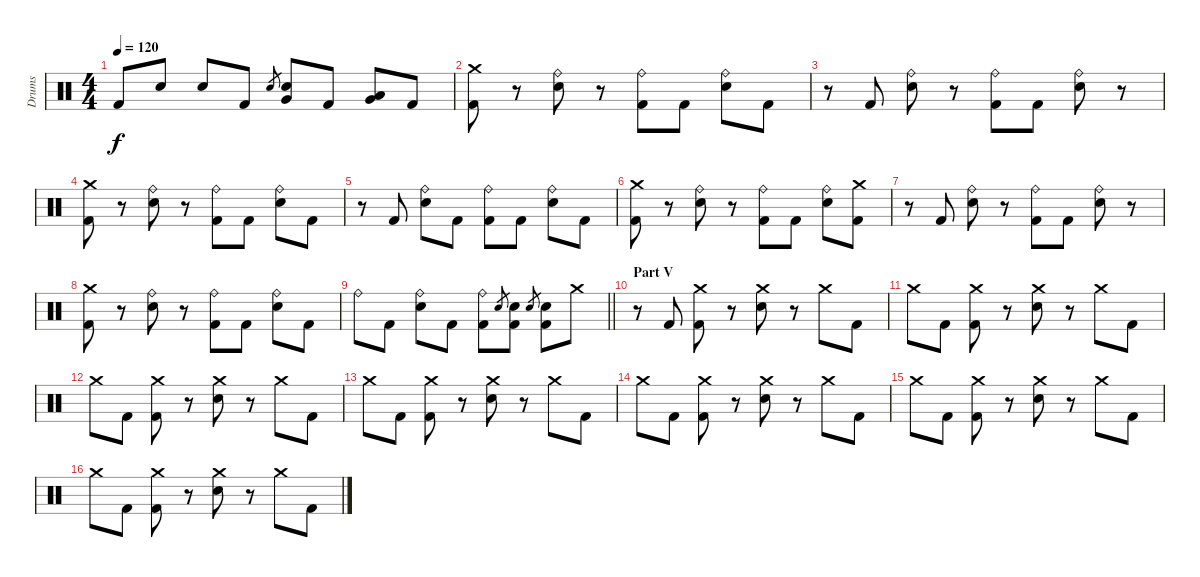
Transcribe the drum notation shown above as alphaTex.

\track ("Drums" "Drums") {instrument percussion}
\staff {score}
\articulation defaults
\ts (4 4)
\tempo 120
\clef neutral
\ks c "Kick (hit) 2".8{dy f} "Electric Snare (hit)".8 "Electric Snare (hit)".8 "Kick (hit) 2".8 "Electric Snare (hit)".8{gr}
("Electric Snare (hit)" "Very Low Tom (hit)").8 "Kick (hit) 2".8 ("Very Low Tom (hit)" "Low Floor Tom (hit)").8 "Kick (hit) 2".8 |
("Crash medium (hit)" "Kick (hit) 2").8 r.8 ("Ride (bell)" "Electric Snare (hit)").8 r.8 ("Ride (bell)" "Kick (hit) 2").8 "Kick (hit) 2".8 ("Ride (bell)" "Electric Snare (hit)").8 "Kick (hit) 2".8 |
r.8 "Kick (hit) 2".8 ("Ride (bell)" "Electric Snare (hit)").8 r.8 ("Ride (bell)" "Kick (hit) 2").8 "Kick (hit) 2".8 ("Ride (bell)" "Electric Snare (hit)").8 r.8 |
("Crash medium (hit)" "Kick (hit) 2").8 r.8 ("Ride (bell)" "Electric Snare (hit)").8 r.8 ("Ride (bell)" "Kick (hit) 2").8 "Kick (hit) 2".8 ("Ride (bell)" "Electric Snare (hit)").8 "Kick (hit) 2".8 |
r.8 "Kick (hit) 2".8 ("Ride (bell)" "Electric Snare (hit)").8 "Kick (hit) 2".8 ("Ride (bell)" "Kick (hit) 2").8 "Kick (hit) 2".8 ("Ride (bell)" "Electric Snare (hit)").8 "Kick (hit) 2".8 |
("Crash medium (hit)" "Kick (hit) 2").8 r.8 ("Ride (bell)" "Electric Snare (hit)").8 r.8 ("Ride (bell)" "Kick (hit) 2").8 "Kick (hit) 2".8 ("Ride (bell)" "Electric Snare (hit)").8 ("Crash medium (hit)" "Kick (hit) 2").8 |
r.8 "Kick (hit) 2".8 ("Ride (bell)" "Electric Snare (hit)").8 r.8 ("Ride (bell)" "Kick (hit) 2").8 "Kick (hit) 2".8 ("Ride (bell)" "Electric Snare (hit)").8 r.8 |
("Crash medium (hit)" "Kick (hit) 2").8 r.8 ("Ride (bell)" "Electric Snare (hit)").8 r.8 ("Ride (bell)" "Kick (hit) 2").8 "Kick (hit) 2".8 ("Ride (bell)" "Electric Snare (hit)").8 "Kick (hit) 2".8 |
\barLineRight lightlight "Ride (bell)".8 "Kick (hit) 2".8
("Ride (bell)" "Electric Snare (hit)").8 "Kick (hit) 2".8 ("Ride (bell)" "Kick (hit) 2").8 "Electric Snare (hit)".8{gr} ("Electric Snare (hit)" "Kick (hit) 2").8 "Electric Snare (hit)".8{gr} ("Electric Snare (hit)" "Kick (hit) 2").8 "Crash medium (hit)".8 |
\section ("" "Part V")
r.8 "Kick (hit) 2".8 ("Crash medium (hit)" "Kick (hit) 2").8 r.8 ("Crash medium (hit)" "Electric Snare (hit)").8 r.8 "Crash medium (hit)".8 "Kick (hit) 2".8 |
"Crash medium (hit)".8 "Kick (hit) 2".8 ("Crash medium (hit)" "Kick (hit) 2").8 r.8 ("Crash medium (hit)" "Electric Snare (hit)").8 r.8 "Crash medium (hit)".8 "Kick (hit) 2".8 |
"Crash medium (hit)".8 "Kick (hit) 2".8 ("Crash medium (hit)" "Kick (hit) 2").8 r.8 ("Crash medium (hit)" "Electric Snare (hit)").8 r.8 "Crash medium (hit)".8 "Kick (hit) 2".8 |
"Crash medium (hit)".8 "Kick (hit) 2".8 ("Crash medium (hit)" "Kick (hit) 2").8 r.8 ("Crash medium (hit)" "Electric Snare (hit)").8 r.8 "Crash medium (hit)".8 "Kick (hit) 2".8 |
"Crash medium (hit)".8 "Kick (hit) 2".8 ("Crash medium (hit)" "Kick (hit) 2").8 r.8 ("Crash medium (hit)" "Electric Snare (hit)").8 r.8 "Crash medium (hit)".8 "Kick (hit) 2".8 |
"Crash medium (hit)".8 "Kick (hit) 2".8 ("Crash medium (hit)" "Kick (hit) 2").8 r.8 ("Crash medium (hit)" "Electric Snare (hit)").8 r.8 "Crash medium (hit)".8 "Kick (hit) 2".8 |
"Crash medium (hit)".8 "Kick (hit) 2".8 ("Crash medium (hit)" "Kick (hit) 2").8 r.8 ("Crash medium (hit)" "Electric Snare (hit)").8 r.8 "Crash medium (hit)".8 "Kick (hit) 2".8
